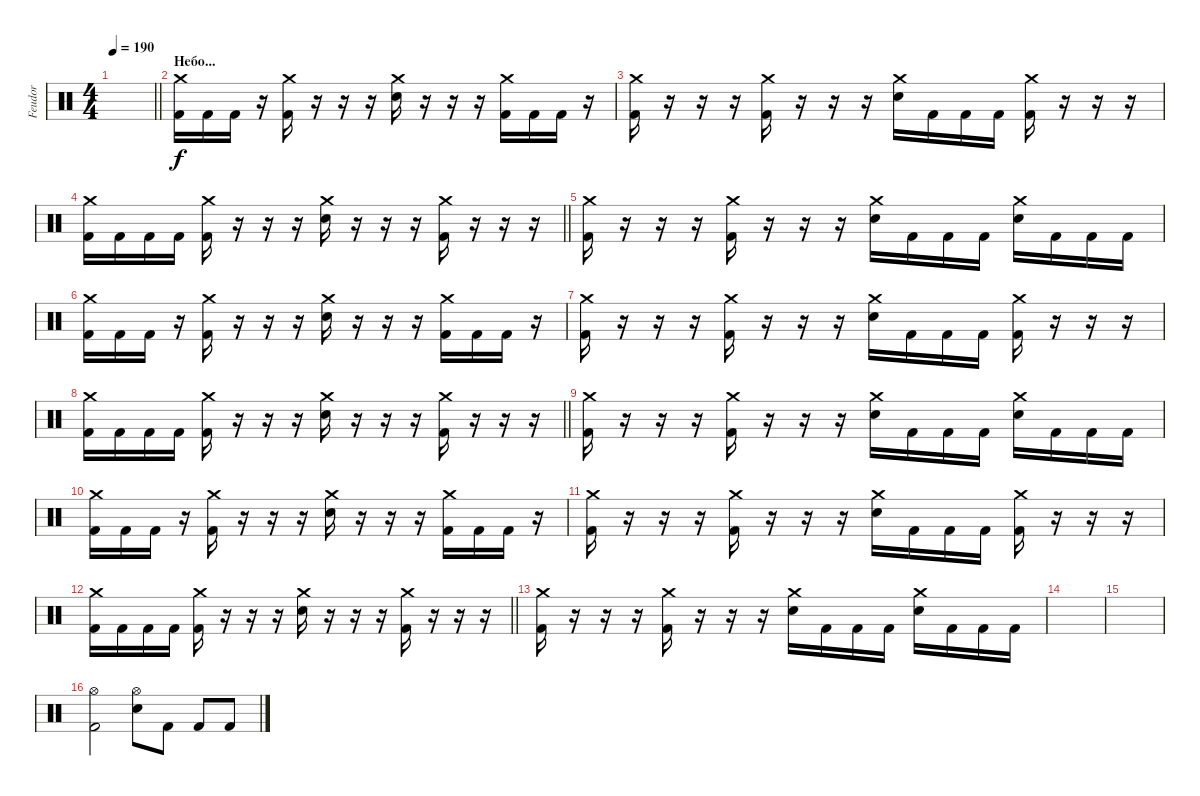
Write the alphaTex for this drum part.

\track ("Feudor" "Feudor") {instrument percussion}
\staff {score}
\articulation defaults
\ts (4 4)
\tempo 190
\clef neutral
\barLineRight lightlight
\ks c
|
\section ("" "Небо...")
("Crash medium (hit)" "Kick (hit) 2").16 "Kick (hit) 2".16 "Kick (hit) 2".16 r.16 ("Crash medium (hit)" "Kick (hit) 2").16 r.16 r.16 r.16 ("Crash medium (hit)" "Snare (hit) 2").16 r.16 r.16 r.16 ("Crash medium (hit)" "Kick (hit) 2").16 "Kick (hit) 2".16 "Kick (hit) 2".16 r.16 |
("Crash medium (hit)" "Kick (hit) 2").16 r.16 r.16 r.16 ("Crash medium (hit)" "Kick (hit) 2").16 r.16 r.16 r.16 ("Crash medium (hit)" "Snare (hit) 2").16 "Kick (hit) 2".16 "Kick (hit) 2".16 "Kick (hit) 2".16 ("Crash medium (hit)" "Kick (hit) 2").16 r.16 r.16 r.16 |
\barLineRight lightlight
("Crash medium (hit)" "Kick (hit) 2").16 "Kick (hit) 2".16 "Kick (hit) 2".16 "Kick (hit) 2".16 ("Crash medium (hit)" "Kick (hit) 2").16 r.16 r.16 r.16 ("Crash medium (hit)" "Snare (hit) 2").16 r.16 r.16 r.16 ("Crash medium (hit)" "Kick (hit) 2").16 r.16 r.16 r.16 |
("Crash medium (hit)" "Kick (hit) 2").16 r.16 r.16 r.16 ("Crash medium (hit)" "Kick (hit) 2").16 r.16 r.16 r.16 ("Crash medium (hit)" "Snare (hit) 2").16 "Kick (hit) 2".16 "Kick (hit) 2".16 "Kick (hit) 2".16 ("Crash medium (hit)" "Snare (hit) 2").16 "Kick (hit) 2".16 "Kick (hit) 2".16 "Kick (hit) 2".16 |
("Crash medium (hit)" "Kick (hit) 2").16 "Kick (hit) 2".16 "Kick (hit) 2".16 r.16 ("Crash medium (hit)" "Kick (hit) 2").16 r.16 r.16 r.16 ("Crash medium (hit)" "Snare (hit) 2").16 r.16 r.16 r.16 ("Crash medium (hit)" "Kick (hit) 2").16 "Kick (hit) 2".16 "Kick (hit) 2".16 r.16 |
("Crash medium (hit)" "Kick (hit) 2").16 r.16 r.16 r.16 ("Crash medium (hit)" "Kick (hit) 2").16 r.16 r.16 r.16 ("Crash medium (hit)" "Snare (hit) 2").16 "Kick (hit) 2".16 "Kick (hit) 2".16 "Kick (hit) 2".16 ("Crash medium (hit)" "Kick (hit) 2").16 r.16 r.16 r.16 |
\barLineRight lightlight
("Crash medium (hit)" "Kick (hit) 2").16 "Kick (hit) 2".16 "Kick (hit) 2".16 "Kick (hit) 2".16 ("Crash medium (hit)" "Kick (hit) 2").16 r.16 r.16 r.16 ("Crash medium (hit)" "Snare (hit) 2").16 r.16 r.16 r.16 ("Crash medium (hit)" "Kick (hit) 2").16 r.16 r.16 r.16 |
("Crash medium (hit)" "Kick (hit) 2").16 r.16 r.16 r.16 ("Crash medium (hit)" "Kick (hit) 2").16 r.16 r.16 r.16 ("Crash medium (hit)" "Snare (hit) 2").16 "Kick (hit) 2".16 "Kick (hit) 2".16 "Kick (hit) 2".16 ("Crash medium (hit)" "Snare (hit) 2").16 "Kick (hit) 2".16 "Kick (hit) 2".16 "Kick (hit) 2".16 |
("Crash medium (hit)" "Kick (hit) 2").16 "Kick (hit) 2".16 "Kick (hit) 2".16 r.16 ("Crash medium (hit)" "Kick (hit) 2").16 r.16 r.16 r.16 ("Crash medium (hit)" "Snare (hit) 2").16 r.16 r.16 r.16 ("Crash medium (hit)" "Kick (hit) 2").16 "Kick (hit) 2".16 "Kick (hit) 2".16 r.16 |
("Crash medium (hit)" "Kick (hit) 2").16 r.16 r.16 r.16 ("Crash medium (hit)" "Kick (hit) 2").16 r.16 r.16 r.16 ("Crash medium (hit)" "Snare (hit) 2").16 "Kick (hit) 2".16 "Kick (hit) 2".16 "Kick (hit) 2".16 ("Crash medium (hit)" "Kick (hit) 2").16 r.16 r.16 r.16 |
\barLineRight lightlight
("Crash medium (hit)" "Kick (hit) 2").16 "Kick (hit) 2".16 "Kick (hit) 2".16 "Kick (hit) 2".16 ("Crash medium (hit)" "Kick (hit) 2").16 r.16 r.16 r.16 ("Crash medium (hit)" "Snare (hit) 2").16 r.16 r.16 r.16 ("Crash medium (hit)" "Kick (hit) 2").16 r.16 r.16 r.16 |
("Crash medium (hit)" "Kick (hit) 2").16 r.16 r.16 r.16 ("Crash medium (hit)" "Kick (hit) 2").16 r.16 r.16 r.16 ("Crash medium (hit)" "Snare (hit) 2").16 "Kick (hit) 2".16 "Kick (hit) 2".16 "Kick (hit) 2".16 ("Crash medium (hit)" "Snare (hit) 2").16 "Kick (hit) 2".16 "Kick (hit) 2".16 "Kick (hit) 2".16 |
|
|
("Hi-Hat (open)" "Kick (hit) 2").2 ("Hi-Hat (open)" "Snare (hit) 2").8 "Kick (hit) 2".8 "Kick (hit) 2".8 "Kick (hit) 2".8
